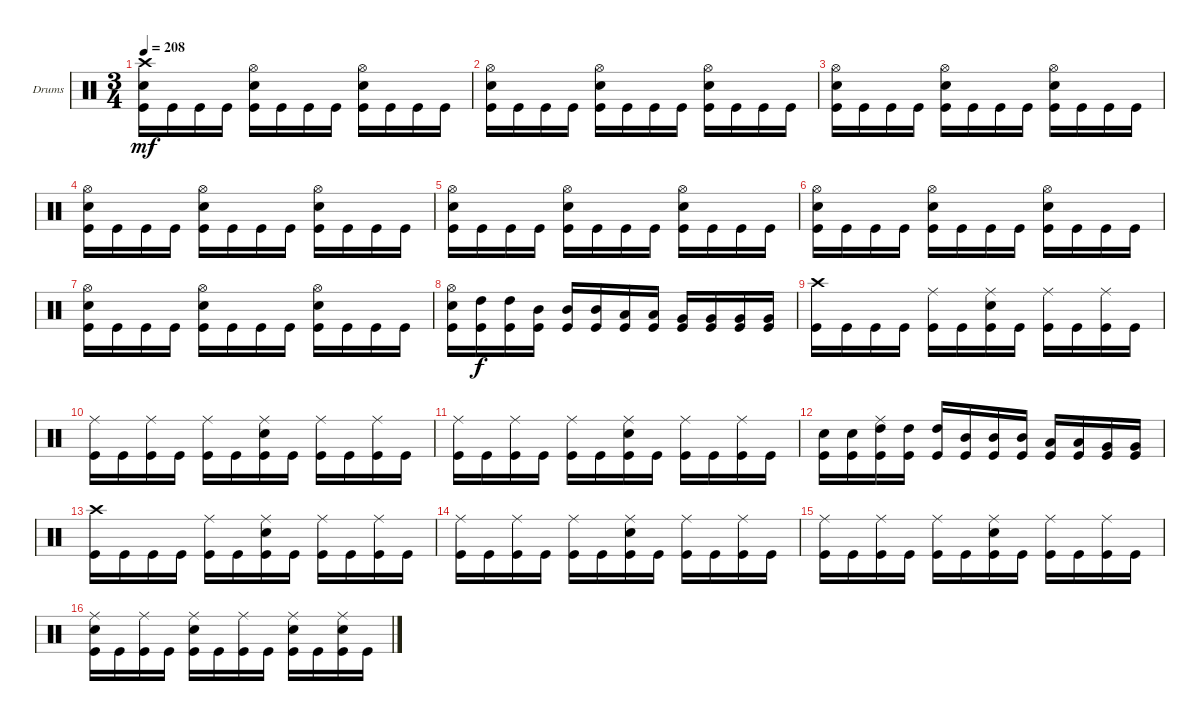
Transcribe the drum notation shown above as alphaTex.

\bracketExtendMode groupsimilarinstruments
\firstSystemTrackNameOrientation horizontal
\otherSystemsTrackNameOrientation horizontal
\track ("Drumkit" "Drums") {instrument percussion}
\staff {score}
\articulation defaults
\ts (3 4)
\tempo 208
\clef neutral
\ks c
("Crash high (hit)" "Snare (hit) 2" "Kick (hit)").16{dy mf} "Kick (hit)".16 "Kick (hit)".16 "Kick (hit)".16 ("Hi-Hat (open)" "Snare (hit) 2" "Kick (hit)").16 "Kick (hit)".16 "Kick (hit)".16 "Kick (hit)".16 ("Hi-Hat (open)" "Snare (hit) 2" "Kick (hit)").16 "Kick (hit)".16 "Kick (hit)".16 "Kick (hit)".16 |
("Hi-Hat (open)" "Snare (hit) 2" "Kick (hit)").16 "Kick (hit)".16 "Kick (hit)".16 "Kick (hit)".16 ("Hi-Hat (open)" "Snare (hit) 2" "Kick (hit)").16 "Kick (hit)".16 "Kick (hit)".16 "Kick (hit)".16 ("Hi-Hat (open)" "Snare (hit) 2" "Kick (hit)").16 "Kick (hit)".16 "Kick (hit)".16 "Kick (hit)".16 |
("Hi-Hat (open)" "Snare (hit) 2" "Kick (hit)").16 "Kick (hit)".16 "Kick (hit)".16 "Kick (hit)".16 ("Hi-Hat (open)" "Snare (hit) 2" "Kick (hit)").16 "Kick (hit)".16 "Kick (hit)".16 "Kick (hit)".16 ("Hi-Hat (open)" "Snare (hit) 2" "Kick (hit)").16 "Kick (hit)".16 "Kick (hit)".16 "Kick (hit)".16 |
("Hi-Hat (open)" "Snare (hit) 2" "Kick (hit)").16 "Kick (hit)".16 "Kick (hit)".16 "Kick (hit)".16 ("Hi-Hat (open)" "Snare (hit) 2" "Kick (hit)").16 "Kick (hit)".16 "Kick (hit)".16 "Kick (hit)".16 ("Hi-Hat (open)" "Snare (hit) 2" "Kick (hit)").16 "Kick (hit)".16 "Kick (hit)".16 "Kick (hit)".16 |
("Hi-Hat (open)" "Snare (hit) 2" "Kick (hit)").16 "Kick (hit)".16 "Kick (hit)".16 "Kick (hit)".16 ("Hi-Hat (open)" "Snare (hit) 2" "Kick (hit)").16 "Kick (hit)".16 "Kick (hit)".16 "Kick (hit)".16 ("Hi-Hat (open)" "Snare (hit) 2" "Kick (hit)").16 "Kick (hit)".16 "Kick (hit)".16 "Kick (hit)".16 |
("Hi-Hat (open)" "Snare (hit) 2" "Kick (hit)").16 "Kick (hit)".16 "Kick (hit)".16 "Kick (hit)".16 ("Hi-Hat (open)" "Snare (hit) 2" "Kick (hit)").16 "Kick (hit)".16 "Kick (hit)".16 "Kick (hit)".16 ("Hi-Hat (open)" "Snare (hit) 2" "Kick (hit)").16 "Kick (hit)".16 "Kick (hit)".16 "Kick (hit)".16 |
("Hi-Hat (open)" "Snare (hit) 2" "Kick (hit)").16 "Kick (hit)".16 "Kick (hit)".16 "Kick (hit)".16 ("Hi-Hat (open)" "Snare (hit) 2" "Kick (hit)").16 "Kick (hit)".16 "Kick (hit)".16 "Kick (hit)".16 ("Hi-Hat (open)" "Snare (hit) 2" "Kick (hit)").16 "Kick (hit)".16 "Kick (hit)".16 "Kick (hit)".16 |
("Hi-Hat (open)" "Snare (hit) 2" "Kick (hit)").16 ("High Tom (hit)" "Kick (hit)").16{dy f} ("High Tom (hit)" "Kick (hit)").16 ("Mid Tom (hit)" "Kick (hit)").16 ("Mid Tom (hit)" "Kick (hit)").16 ("Mid Tom (hit)" "Kick (hit)").16 ("Low Tom (hit)" "Kick (hit)").16 ("Low Tom (hit)" "Kick (hit)").16 ("Very Low Tom (hit)" "Kick (hit)").16 ("Very Low Tom (hit)" "Kick (hit)").16 ("Very Low Tom (hit)" "Kick (hit)").16 ("Very Low Tom (hit)" "Kick (hit)").16 |
("Crash high (hit)" "Kick (hit)").16 "Kick (hit)".16 "Kick (hit)".16 "Kick (hit)".16 ("Ride (middle)" "Kick (hit)").16 "Kick (hit)".16 ("Ride (middle)" "Snare (hit) 2" "Kick (hit)").16 "Kick (hit)".16 ("Ride (middle)" "Kick (hit)").16 "Kick (hit)".16 ("Ride (middle)" "Kick (hit)").16 "Kick (hit)".16 |
("Ride (middle)" "Kick (hit)").16 "Kick (hit)".16 ("Ride (middle)" "Kick (hit)").16 "Kick (hit)".16 ("Ride (middle)" "Kick (hit)").16 "Kick (hit)".16 ("Ride (middle)" "Snare (hit) 2" "Kick (hit)").16 "Kick (hit)".16 ("Ride (middle)" "Kick (hit)").16 "Kick (hit)".16 ("Ride (middle)" "Kick (hit)").16 "Kick (hit)".16 |
("Ride (middle)" "Kick (hit)").16 "Kick (hit)".16 ("Ride (middle)" "Kick (hit)").16 "Kick (hit)".16 ("Ride (middle)" "Kick (hit)").16 "Kick (hit)".16 ("Ride (middle)" "Snare (hit) 2" "Kick (hit)").16 "Kick (hit)".16 ("Ride (middle)" "Kick (hit)").16 "Kick (hit)".16 ("Ride (middle)" "Kick (hit)").16 "Kick (hit)".16 |
("Snare (hit) 2" "Kick (hit)").16 ("Snare (hit) 2" "Kick (hit)").16 ("Ride (middle)" "High Tom (hit)" "Kick (hit)").16 ("High Tom (hit)" "Kick (hit)").16 ("High Tom (hit)" "Kick (hit)").16 ("Mid Tom (hit)" "Kick (hit)").16 ("Mid Tom (hit)" "Kick (hit)").16 ("Mid Tom (hit)" "Kick (hit)").16 ("Low Tom (hit)" "Kick (hit)").16 ("Low Tom (hit)" "Kick (hit)").16 ("Very Low Tom (hit)" "Kick (hit)").16 ("Very Low Tom (hit)" "Kick (hit)").16 |
("Crash high (hit)" "Kick (hit)").16 "Kick (hit)".16 "Kick (hit)".16 "Kick (hit)".16 ("Ride (middle)" "Kick (hit)").16 "Kick (hit)".16 ("Ride (middle)" "Snare (hit) 2" "Kick (hit)").16 "Kick (hit)".16 ("Ride (middle)" "Kick (hit)").16 "Kick (hit)".16 ("Ride (middle)" "Kick (hit)").16 "Kick (hit)".16 |
("Ride (middle)" "Kick (hit)").16 "Kick (hit)".16 ("Ride (middle)" "Kick (hit)").16 "Kick (hit)".16 ("Ride (middle)" "Kick (hit)").16 "Kick (hit)".16 ("Ride (middle)" "Snare (hit) 2" "Kick (hit)").16 "Kick (hit)".16 ("Ride (middle)" "Kick (hit)").16 "Kick (hit)".16 ("Ride (middle)" "Kick (hit)").16 "Kick (hit)".16 |
("Ride (middle)" "Kick (hit)").16 "Kick (hit)".16 ("Ride (middle)" "Kick (hit)").16 "Kick (hit)".16 ("Ride (middle)" "Kick (hit)").16 "Kick (hit)".16 ("Ride (middle)" "Snare (hit) 2" "Kick (hit)").16 "Kick (hit)".16 ("Ride (middle)" "Kick (hit)").16 "Kick (hit)".16 ("Ride (middle)" "Kick (hit)").16 "Kick (hit)".16 |
("Ride (middle)" "Snare (hit) 2" "Kick (hit)").16 "Kick (hit)".16 ("Ride (middle)" "Kick (hit)").16 "Kick (hit)".16 ("Ride (middle)" "Snare (hit) 2" "Kick (hit)").16 "Kick (hit)".16 ("Ride (middle)" "Kick (hit)").16 "Kick (hit)".16 ("Ride (middle)" "Snare (hit) 2" "Kick (hit)").16 "Kick (hit)".16 ("Ride (middle)" "Snare (hit) 2" "Kick (hit)").16 "Kick (hit)".16
